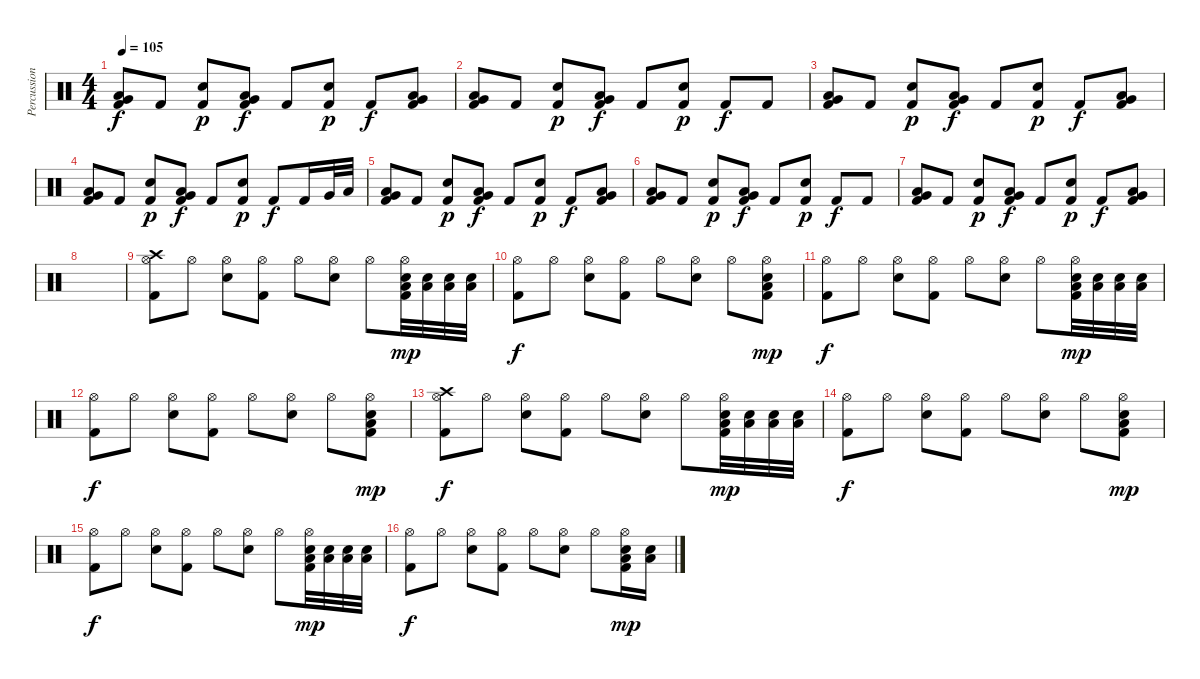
\track ("Percussion" "Percussion") {instrument percussion}
\staff {score}
\articulation defaults
\ts (4 4)
\tempo 105
\clef neutral
\ks c
("Very Low Tom (hit)" "Low Floor Tom (hit)" "Kick (hit) 2").8{dy f} "Kick (hit) 2".8 ("Snare (hit) 2" "Kick (hit) 2").8{dy p} ("Very Low Tom (hit)" "Low Floor Tom (hit)" "Kick (hit) 2").8{dy f} "Kick (hit) 2".8 ("Snare (hit) 2" "Kick (hit) 2").8{dy p} "Kick (hit) 2".8{dy f} ("Very Low Tom (hit)" "Low Floor Tom (hit)" "Kick (hit) 2").8 |
("Very Low Tom (hit)" "Low Floor Tom (hit)" "Kick (hit) 2").8 "Kick (hit) 2".8 ("Snare (hit) 2" "Kick (hit) 2").8{dy p} ("Very Low Tom (hit)" "Low Floor Tom (hit)" "Kick (hit) 2").8{dy f} "Kick (hit) 2".8 ("Snare (hit) 2" "Kick (hit) 2").8{dy p} "Kick (hit) 2".8{dy f} "Kick (hit) 2".8 |
("Very Low Tom (hit)" "Low Floor Tom (hit)" "Kick (hit) 2").8 "Kick (hit) 2".8 ("Snare (hit) 2" "Kick (hit) 2").8{dy p} ("Very Low Tom (hit)" "Low Floor Tom (hit)" "Kick (hit) 2").8{dy f} "Kick (hit) 2".8 ("Snare (hit) 2" "Kick (hit) 2").8{dy p} "Kick (hit) 2".8{dy f} ("Very Low Tom (hit)" "Low Floor Tom (hit)" "Kick (hit) 2").8 |
("Very Low Tom (hit)" "Low Floor Tom (hit)" "Kick (hit) 2").8 "Kick (hit) 2".8 ("Snare (hit) 2" "Kick (hit) 2").8{dy p} ("Very Low Tom (hit)" "Low Floor Tom (hit)" "Kick (hit) 2").8{dy f} "Kick (hit) 2".8 ("Snare (hit) 2" "Kick (hit) 2").8{dy p} "Kick (hit) 2".8{dy f} "Kick (hit) 2".16 "Very Low Tom (hit)".32 "Low Floor Tom (hit)".32 |
("Very Low Tom (hit)" "Low Floor Tom (hit)" "Kick (hit) 2").8 "Kick (hit) 2".8 ("Snare (hit) 2" "Kick (hit) 2").8{dy p} ("Very Low Tom (hit)" "Low Floor Tom (hit)" "Kick (hit) 2").8{dy f} "Kick (hit) 2".8 ("Snare (hit) 2" "Kick (hit) 2").8{dy p} "Kick (hit) 2".8{dy f} ("Very Low Tom (hit)" "Low Floor Tom (hit)" "Kick (hit) 2").8 |
("Very Low Tom (hit)" "Low Floor Tom (hit)" "Kick (hit) 2").8 "Kick (hit) 2".8 ("Snare (hit) 2" "Kick (hit) 2").8{dy p} ("Very Low Tom (hit)" "Low Floor Tom (hit)" "Kick (hit) 2").8{dy f} "Kick (hit) 2".8 ("Snare (hit) 2" "Kick (hit) 2").8{dy p} "Kick (hit) 2".8{dy f} "Kick (hit) 2".8 |
("Very Low Tom (hit)" "Low Floor Tom (hit)" "Kick (hit) 2").8 "Kick (hit) 2".8 ("Snare (hit) 2" "Kick (hit) 2").8{dy p} ("Very Low Tom (hit)" "Low Floor Tom (hit)" "Kick (hit) 2").8{dy f} "Kick (hit) 2".8 ("Snare (hit) 2" "Kick (hit) 2").8{dy p} "Kick (hit) 2".8{dy f} ("Very Low Tom (hit)" "Low Floor Tom (hit)" "Kick (hit) 2").8 |
|
("Crash high (hit)" "Hi-Hat (open)" "Kick (hit) 2").8 "Hi-Hat (open)".8 ("Hi-Hat (open)" "Snare (hit) 2").8 ("Hi-Hat (open)" "Kick (hit) 2").8 "Hi-Hat (open)".8 ("Hi-Hat (open)" "Snare (hit) 2").8 "Hi-Hat (open)".8 ("Hi-Hat (open)" "Electric Snare (hit)" "Low Floor Tom (hit)" "Kick (hit) 2").32{dy mp} ("Electric Snare (hit)" "Low Floor Tom (hit)").32 ("Electric Snare (hit)" "Low Floor Tom (hit)").32 ("Electric Snare (hit)" "Low Floor Tom (hit)").32 |
("Hi-Hat (open)" "Kick (hit) 2").8{dy f} "Hi-Hat (open)".8 ("Hi-Hat (open)" "Snare (hit) 2").8 ("Hi-Hat (open)" "Kick (hit) 2").8 "Hi-Hat (open)".8 ("Hi-Hat (open)" "Snare (hit) 2").8 "Hi-Hat (open)".8 ("Hi-Hat (open)" "Electric Snare (hit)" "Low Floor Tom (hit)" "Kick (hit) 2").8{dy mp} |
("Hi-Hat (open)" "Kick (hit) 2").8{dy f} "Hi-Hat (open)".8 ("Hi-Hat (open)" "Snare (hit) 2").8 ("Hi-Hat (open)" "Kick (hit) 2").8 "Hi-Hat (open)".8 ("Hi-Hat (open)" "Snare (hit) 2").8 "Hi-Hat (open)".8 ("Hi-Hat (open)" "Electric Snare (hit)" "Low Floor Tom (hit)" "Kick (hit) 2").32{dy mp} ("Electric Snare (hit)" "Low Floor Tom (hit)").32 ("Electric Snare (hit)" "Low Floor Tom (hit)").32 ("Electric Snare (hit)" "Low Floor Tom (hit)").32 |
("Hi-Hat (open)" "Kick (hit) 2").8{dy f} "Hi-Hat (open)".8 ("Hi-Hat (open)" "Snare (hit) 2").8 ("Hi-Hat (open)" "Kick (hit) 2").8 "Hi-Hat (open)".8 ("Hi-Hat (open)" "Snare (hit) 2").8 "Hi-Hat (open)".8 ("Hi-Hat (open)" "Electric Snare (hit)" "Low Floor Tom (hit)" "Kick (hit) 2").8{dy mp} |
("Crash high (hit)" "Hi-Hat (open)" "Kick (hit) 2").8{dy f} "Hi-Hat (open)".8 ("Hi-Hat (open)" "Snare (hit) 2").8 ("Hi-Hat (open)" "Kick (hit) 2").8 "Hi-Hat (open)".8 ("Hi-Hat (open)" "Snare (hit) 2").8 "Hi-Hat (open)".8 ("Hi-Hat (open)" "Electric Snare (hit)" "Low Floor Tom (hit)" "Kick (hit) 2").32{dy mp} ("Electric Snare (hit)" "Low Floor Tom (hit)").32 ("Electric Snare (hit)" "Low Floor Tom (hit)").32 ("Electric Snare (hit)" "Low Floor Tom (hit)").32 |
("Hi-Hat (open)" "Kick (hit) 2").8{dy f} "Hi-Hat (open)".8 ("Hi-Hat (open)" "Snare (hit) 2").8 ("Hi-Hat (open)" "Kick (hit) 2").8 "Hi-Hat (open)".8 ("Hi-Hat (open)" "Snare (hit) 2").8 "Hi-Hat (open)".8 ("Hi-Hat (open)" "Electric Snare (hit)" "Low Floor Tom (hit)" "Kick (hit) 2").8{dy mp} |
("Hi-Hat (open)" "Kick (hit) 2").8{dy f} "Hi-Hat (open)".8 ("Hi-Hat (open)" "Snare (hit) 2").8 ("Hi-Hat (open)" "Kick (hit) 2").8 "Hi-Hat (open)".8 ("Hi-Hat (open)" "Snare (hit) 2").8 "Hi-Hat (open)".8 ("Hi-Hat (open)" "Electric Snare (hit)" "Low Floor Tom (hit)" "Kick (hit) 2").32{dy mp} ("Electric Snare (hit)" "Low Floor Tom (hit)").32 ("Electric Snare (hit)" "Low Floor Tom (hit)").32 ("Electric Snare (hit)" "Low Floor Tom (hit)").32 |
("Hi-Hat (open)" "Kick (hit) 2").8{dy f} "Hi-Hat (open)".8 ("Hi-Hat (open)" "Snare (hit) 2").8 ("Hi-Hat (open)" "Kick (hit) 2").8 "Hi-Hat (open)".8 ("Hi-Hat (open)" "Snare (hit) 2").8 "Hi-Hat (open)".8 ("Hi-Hat (open)" "Electric Snare (hit)" "Low Floor Tom (hit)" "Kick (hit) 2").16{dy mp} ("Electric Snare (hit)" "Low Floor Tom (hit)").16
